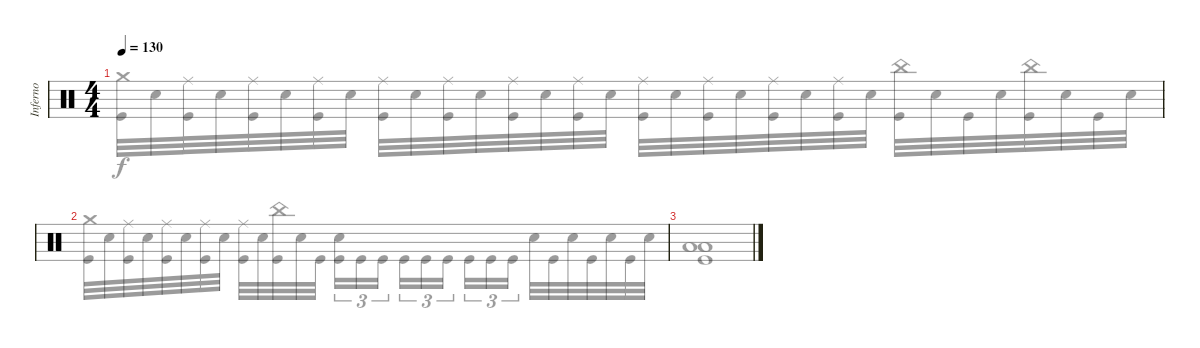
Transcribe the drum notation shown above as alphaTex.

\track ("Inferno" "Inferno") {instrument percussion}
\staff {score}
\articulation defaults
\voice
\ts (4 4)
\tempo 130
\clef neutral
\ks c
|
|
\voice
\clef neutral
\ks c
("Kick (hit)" "Crash medium (hit)").32{dy f} "Snare (hit) 2".32 ("Kick (hit)" "Ride (middle)").32 "Snare (hit) 2".32 ("Kick (hit)" "Ride (middle)").32 "Snare (hit) 2".32 ("Kick (hit)" "Ride (middle)").32 "Snare (hit) 2".32 ("Kick (hit)" "Ride (middle)").32 "Snare (hit) 2".32 ("Kick (hit)" "Ride (middle)").32 "Snare (hit) 2".32 ("Kick (hit)" "Ride (middle)").32 "Snare (hit) 2".32 ("Kick (hit)" "Ride (middle)").32 "Snare (hit) 2".32 ("Kick (hit)" "Ride (middle)").32 "Snare (hit) 2".32 ("Kick (hit)" "Ride (middle)").32 "Snare (hit) 2".32 ("Kick (hit)" "Ride (middle)").32 "Snare (hit) 2".32 ("Kick (hit)" "Ride (middle)").32 "Snare (hit) 2".32 ("Kick (hit)" "China (hit)").32 "Snare (hit) 2".32 "Kick (hit)".32 "Snare (hit) 2".32 ("Kick (hit)" "China (hit)").32 "Snare (hit) 2".32 "Kick (hit)".32 "Snare (hit) 2".32 |
("Kick (hit)" "Crash medium (hit)").32 "Snare (hit) 2".32 ("Kick (hit)" "Ride (middle)").32 "Snare (hit) 2".32 ("Kick (hit)" "Ride (middle)").32 "Snare (hit) 2".32 ("Kick (hit)" "Ride (middle)").32 "Snare (hit) 2".32 ("Kick (hit)" "Ride (middle)").32 "Snare (hit) 2".32 ("Kick (hit)" "China (hit)").32 "Snare (hit) 2".32 "Kick (hit)".32{beam splitsecondary} ("Kick (hit)" "Snare (hit) 2").16{tu (3 2)} "Kick (hit)".16{tu (3 2)} "Kick (hit)".16{tu (3 2)} "Kick (hit)".16{tu (3 2)} "Kick (hit)".16{tu (3 2)} "Kick (hit)".16{tu (3 2) beam splitsecondary} "Kick (hit)".16{tu (3 2)} "Kick (hit)".16{tu (3 2)} "Kick (hit)".16{tu (3 2)} "Snare (hit) 2".32 "Kick (hit)".32 "Snare (hit) 2".32 "Kick (hit)".32 "Snare (hit) 2".32 "Kick (hit)".32 "Snare (hit) 2".32 |
("Kick (hit)" "Low Floor Tom (hit)" "Low Tom (hit)").1
